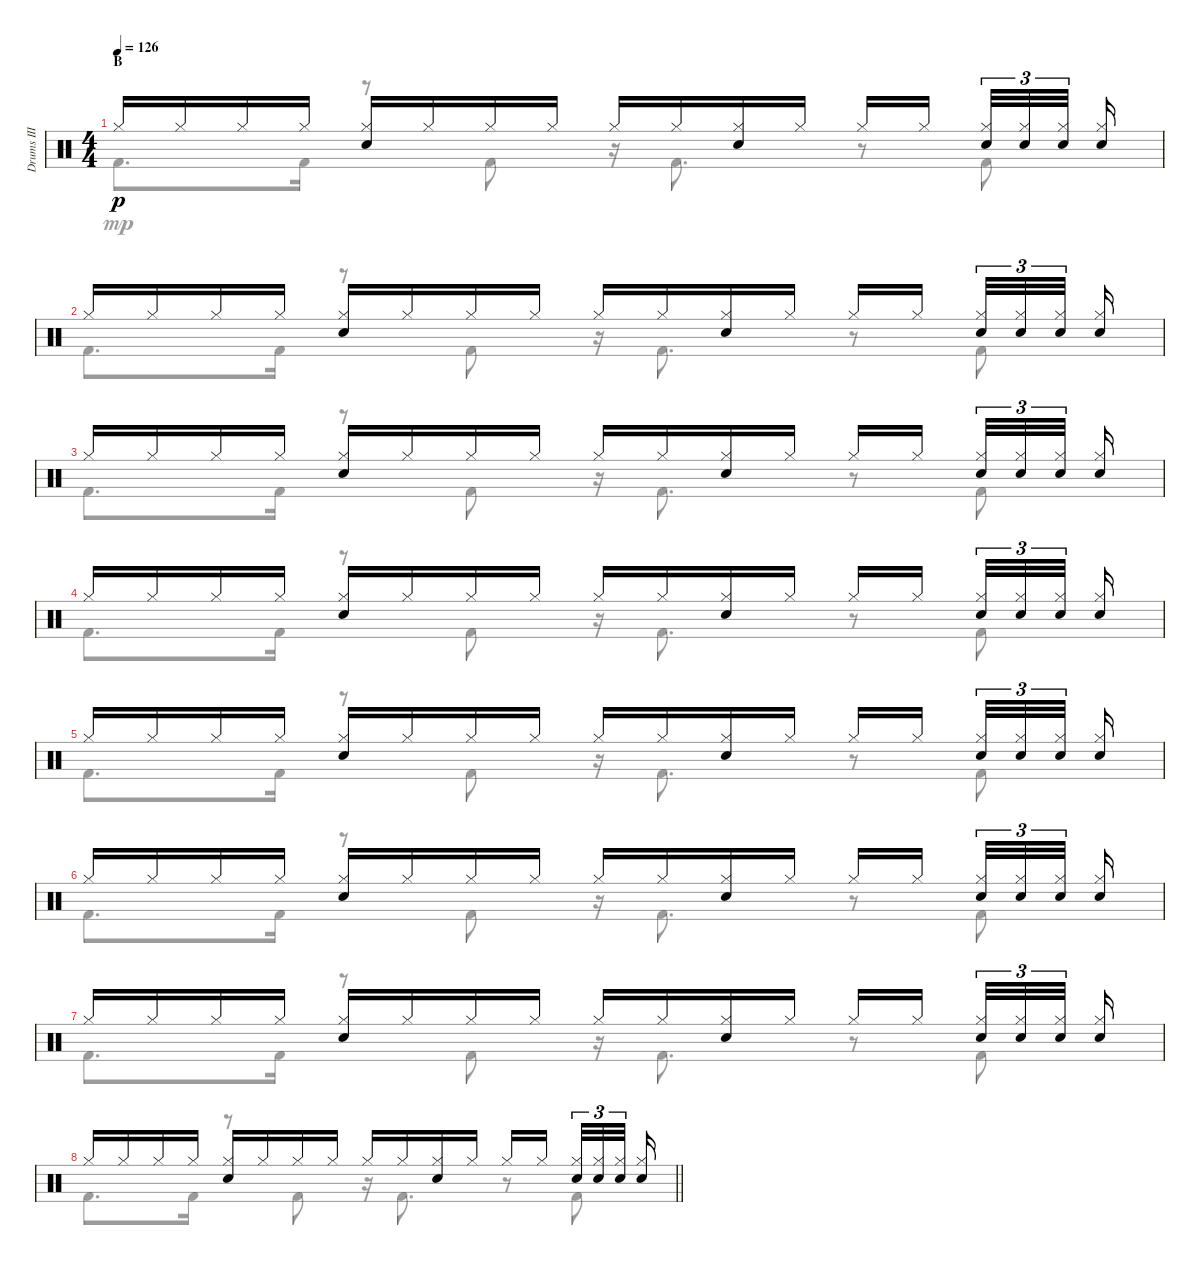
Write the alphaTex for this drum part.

\track ("Drums III" "Drums III") {instrument percussion}
\staff {score}
\articulation defaults
\voice
\ts (4 4)
\section ("" "B")
\tempo 126
\clef neutral
\ks c "Hi-Hat (closed)".16{dy p} "Hi-Hat (closed)".16 "Hi-Hat (closed)".16 "Hi-Hat (closed)".16
("Hi-Hat (closed)" "Electric Snare (hit)").16 "Hi-Hat (closed)".16 "Hi-Hat (closed)".16 "Hi-Hat (closed)".16 "Hi-Hat (closed)".16 "Hi-Hat (closed)".16 ("Hi-Hat (closed)" "Electric Snare (hit)").16 "Hi-Hat (closed)".16 "Hi-Hat (closed)".16 "Hi-Hat (closed)".16{beam splitsecondary} ("Hi-Hat (closed)" "Electric Snare (hit)").32{tu (3 2)} ("Hi-Hat (closed)" "Electric Snare (hit)").32{tu (3 2)} ("Hi-Hat (closed)" "Electric Snare (hit)").32{tu (3 2) beam splitsecondary} ("Hi-Hat (closed)" "Electric Snare (hit)").16 |
"Hi-Hat (closed)".16 "Hi-Hat (closed)".16 "Hi-Hat (closed)".16 "Hi-Hat (closed)".16 ("Hi-Hat (closed)" "Electric Snare (hit)").16 "Hi-Hat (closed)".16 "Hi-Hat (closed)".16 "Hi-Hat (closed)".16 "Hi-Hat (closed)".16 "Hi-Hat (closed)".16 ("Hi-Hat (closed)" "Electric Snare (hit)").16 "Hi-Hat (closed)".16 "Hi-Hat (closed)".16 "Hi-Hat (closed)".16{beam splitsecondary} ("Hi-Hat (closed)" "Electric Snare (hit)").32{tu (3 2)} ("Hi-Hat (closed)" "Electric Snare (hit)").32{tu (3 2)} ("Hi-Hat (closed)" "Electric Snare (hit)").32{tu (3 2) beam splitsecondary} ("Hi-Hat (closed)" "Electric Snare (hit)").16 |
"Hi-Hat (closed)".16 "Hi-Hat (closed)".16 "Hi-Hat (closed)".16 "Hi-Hat (closed)".16 ("Hi-Hat (closed)" "Electric Snare (hit)").16 "Hi-Hat (closed)".16 "Hi-Hat (closed)".16 "Hi-Hat (closed)".16 "Hi-Hat (closed)".16 "Hi-Hat (closed)".16 ("Hi-Hat (closed)" "Electric Snare (hit)").16 "Hi-Hat (closed)".16 "Hi-Hat (closed)".16 "Hi-Hat (closed)".16{beam splitsecondary} ("Hi-Hat (closed)" "Electric Snare (hit)").32{tu (3 2)} ("Hi-Hat (closed)" "Electric Snare (hit)").32{tu (3 2)} ("Hi-Hat (closed)" "Electric Snare (hit)").32{tu (3 2) beam splitsecondary} ("Hi-Hat (closed)" "Electric Snare (hit)").16 |
"Hi-Hat (closed)".16 "Hi-Hat (closed)".16 "Hi-Hat (closed)".16 "Hi-Hat (closed)".16 ("Hi-Hat (closed)" "Electric Snare (hit)").16 "Hi-Hat (closed)".16 "Hi-Hat (closed)".16 "Hi-Hat (closed)".16 "Hi-Hat (closed)".16 "Hi-Hat (closed)".16 ("Hi-Hat (closed)" "Electric Snare (hit)").16 "Hi-Hat (closed)".16 "Hi-Hat (closed)".16 "Hi-Hat (closed)".16{beam splitsecondary} ("Hi-Hat (closed)" "Electric Snare (hit)").32{tu (3 2)} ("Hi-Hat (closed)" "Electric Snare (hit)").32{tu (3 2)} ("Hi-Hat (closed)" "Electric Snare (hit)").32{tu (3 2) beam splitsecondary} ("Hi-Hat (closed)" "Electric Snare (hit)").16 |
"Hi-Hat (closed)".16 "Hi-Hat (closed)".16 "Hi-Hat (closed)".16 "Hi-Hat (closed)".16 ("Hi-Hat (closed)" "Electric Snare (hit)").16 "Hi-Hat (closed)".16 "Hi-Hat (closed)".16 "Hi-Hat (closed)".16 "Hi-Hat (closed)".16 "Hi-Hat (closed)".16 ("Hi-Hat (closed)" "Electric Snare (hit)").16 "Hi-Hat (closed)".16 "Hi-Hat (closed)".16 "Hi-Hat (closed)".16{beam splitsecondary} ("Hi-Hat (closed)" "Electric Snare (hit)").32{tu (3 2)} ("Hi-Hat (closed)" "Electric Snare (hit)").32{tu (3 2)} ("Hi-Hat (closed)" "Electric Snare (hit)").32{tu (3 2) beam splitsecondary} ("Hi-Hat (closed)" "Electric Snare (hit)").16 |
"Hi-Hat (closed)".16 "Hi-Hat (closed)".16 "Hi-Hat (closed)".16 "Hi-Hat (closed)".16 ("Hi-Hat (closed)" "Electric Snare (hit)").16 "Hi-Hat (closed)".16 "Hi-Hat (closed)".16 "Hi-Hat (closed)".16 "Hi-Hat (closed)".16 "Hi-Hat (closed)".16 ("Hi-Hat (closed)" "Electric Snare (hit)").16 "Hi-Hat (closed)".16 "Hi-Hat (closed)".16 "Hi-Hat (closed)".16{beam splitsecondary} ("Hi-Hat (closed)" "Electric Snare (hit)").32{tu (3 2)} ("Hi-Hat (closed)" "Electric Snare (hit)").32{tu (3 2)} ("Hi-Hat (closed)" "Electric Snare (hit)").32{tu (3 2) beam splitsecondary} ("Hi-Hat (closed)" "Electric Snare (hit)").16 |
"Hi-Hat (closed)".16 "Hi-Hat (closed)".16 "Hi-Hat (closed)".16 "Hi-Hat (closed)".16 ("Hi-Hat (closed)" "Electric Snare (hit)").16 "Hi-Hat (closed)".16 "Hi-Hat (closed)".16 "Hi-Hat (closed)".16 "Hi-Hat (closed)".16 "Hi-Hat (closed)".16 ("Hi-Hat (closed)" "Electric Snare (hit)").16 "Hi-Hat (closed)".16 "Hi-Hat (closed)".16 "Hi-Hat (closed)".16{beam splitsecondary} ("Hi-Hat (closed)" "Electric Snare (hit)").32{tu (3 2)} ("Hi-Hat (closed)" "Electric Snare (hit)").32{tu (3 2)} ("Hi-Hat (closed)" "Electric Snare (hit)").32{tu (3 2) beam splitsecondary} ("Hi-Hat (closed)" "Electric Snare (hit)").16 |
\barLineRight lightlight "Hi-Hat (closed)".16 "Hi-Hat (closed)".16 "Hi-Hat (closed)".16 "Hi-Hat (closed)".16
("Hi-Hat (closed)" "Electric Snare (hit)").16 "Hi-Hat (closed)".16 "Hi-Hat (closed)".16 "Hi-Hat (closed)".16 "Hi-Hat (closed)".16 "Hi-Hat (closed)".16 ("Hi-Hat (closed)" "Electric Snare (hit)").16 "Hi-Hat (closed)".16 "Hi-Hat (closed)".16 "Hi-Hat (closed)".16{beam splitsecondary} ("Hi-Hat (closed)" "Electric Snare (hit)").32{tu (3 2)} ("Hi-Hat (closed)" "Electric Snare (hit)").32{tu (3 2)} ("Hi-Hat (closed)" "Electric Snare (hit)").32{tu (3 2) beam splitsecondary} ("Hi-Hat (closed)" "Electric Snare (hit)").16
\voice
\clef neutral
\ottava regular
\simile none
\ks c "Kick (hit) 2".8{d dy mp} "Kick (hit) 2".16
r.8 "Kick (hit) 2".8 r.16 "Kick (hit) 2".8{d} r.8 "Kick (hit) 2".8 |
"Kick (hit) 2".8{d} "Kick (hit) 2".16 r.8 "Kick (hit) 2".8 r.16 "Kick (hit) 2".8{d} r.8 "Kick (hit) 2".8 |
"Kick (hit) 2".8{d} "Kick (hit) 2".16 r.8 "Kick (hit) 2".8 r.16 "Kick (hit) 2".8{d} r.8 "Kick (hit) 2".8 |
"Kick (hit) 2".8{d} "Kick (hit) 2".16 r.8 "Kick (hit) 2".8 r.16 "Kick (hit) 2".8{d} r.8 "Kick (hit) 2".8 |
"Kick (hit) 2".8{d} "Kick (hit) 2".16 r.8 "Kick (hit) 2".8 r.16 "Kick (hit) 2".8{d} r.8 "Kick (hit) 2".8 |
"Kick (hit) 2".8{d} "Kick (hit) 2".16 r.8 "Kick (hit) 2".8 r.16 "Kick (hit) 2".8{d} r.8 "Kick (hit) 2".8 |
"Kick (hit) 2".8{d} "Kick (hit) 2".16 r.8 "Kick (hit) 2".8 r.16 "Kick (hit) 2".8{d} r.8 "Kick (hit) 2".8 |
\barLineRight lightlight "Kick (hit) 2".8{d} "Kick (hit) 2".16
r.8 "Kick (hit) 2".8 r.16 "Kick (hit) 2".8{d} r.8 "Kick (hit) 2".8
